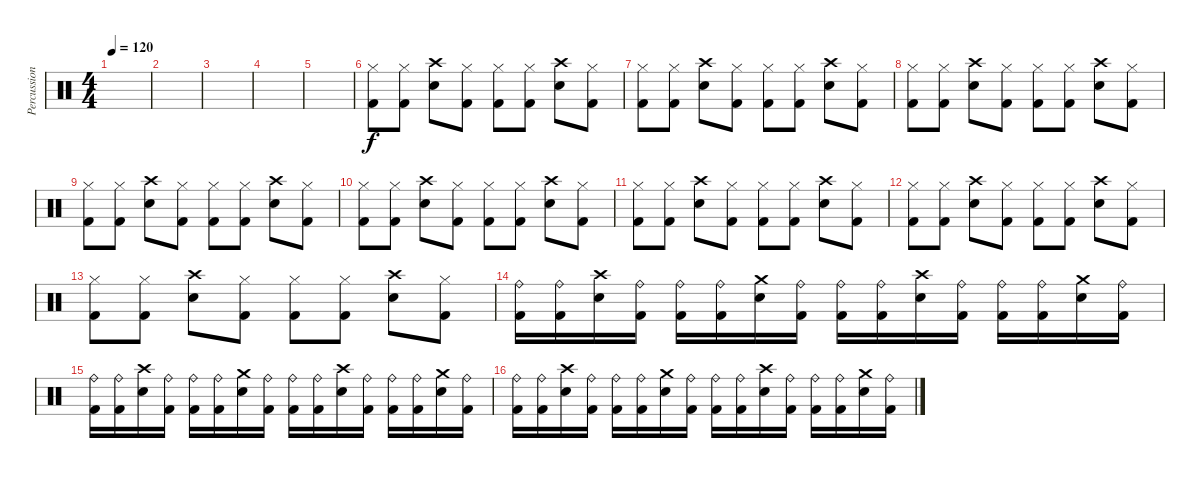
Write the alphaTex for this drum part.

\track ("Percussion" "Percussion") {instrument percussion}
\staff {score}
\articulation defaults
\ts (4 4)
\tempo 120
\clef neutral
\ks c
|
|
|
|
|
("Kick (hit) 2" "Hi-Hat (closed)").8 ("Kick (hit) 2" "Hi-Hat (closed)").8 ("Electric Snare (hit)" "Crash high (hit)").8 ("Kick (hit) 2" "Hi-Hat (closed)").8 ("Kick (hit) 2" "Hi-Hat (closed)").8 ("Kick (hit) 2" "Hi-Hat (closed)").8 ("Electric Snare (hit)" "Crash high (hit)").8 ("Kick (hit) 2" "Hi-Hat (closed)").8 |
("Kick (hit) 2" "Hi-Hat (closed)").8 ("Kick (hit) 2" "Hi-Hat (closed)").8 ("Electric Snare (hit)" "Crash high (hit)").8 ("Kick (hit) 2" "Hi-Hat (closed)").8 ("Kick (hit) 2" "Hi-Hat (closed)").8 ("Kick (hit) 2" "Hi-Hat (closed)").8 ("Electric Snare (hit)" "Crash high (hit)").8 ("Kick (hit) 2" "Hi-Hat (closed)").8 |
("Kick (hit) 2" "Hi-Hat (closed)").8 ("Kick (hit) 2" "Hi-Hat (closed)").8 ("Electric Snare (hit)" "Crash high (hit)").8 ("Kick (hit) 2" "Hi-Hat (closed)").8 ("Kick (hit) 2" "Hi-Hat (closed)").8 ("Kick (hit) 2" "Hi-Hat (closed)").8 ("Electric Snare (hit)" "Crash high (hit)").8 ("Kick (hit) 2" "Hi-Hat (closed)").8 |
("Kick (hit) 2" "Hi-Hat (closed)").8 ("Kick (hit) 2" "Hi-Hat (closed)").8 ("Electric Snare (hit)" "Crash high (hit)").8 ("Kick (hit) 2" "Hi-Hat (closed)").8 ("Kick (hit) 2" "Hi-Hat (closed)").8 ("Kick (hit) 2" "Hi-Hat (closed)").8 ("Electric Snare (hit)" "Crash high (hit)").8 ("Kick (hit) 2" "Hi-Hat (closed)").8 |
("Kick (hit) 2" "Hi-Hat (closed)").8 ("Kick (hit) 2" "Hi-Hat (closed)").8 ("Electric Snare (hit)" "Crash high (hit)").8 ("Kick (hit) 2" "Hi-Hat (closed)").8 ("Kick (hit) 2" "Hi-Hat (closed)").8 ("Kick (hit) 2" "Hi-Hat (closed)").8 ("Electric Snare (hit)" "Crash high (hit)").8 ("Kick (hit) 2" "Hi-Hat (closed)").8 |
("Kick (hit) 2" "Hi-Hat (closed)").8 ("Kick (hit) 2" "Hi-Hat (closed)").8 ("Electric Snare (hit)" "Crash high (hit)").8 ("Kick (hit) 2" "Hi-Hat (closed)").8 ("Kick (hit) 2" "Hi-Hat (closed)").8 ("Kick (hit) 2" "Hi-Hat (closed)").8 ("Electric Snare (hit)" "Crash high (hit)").8 ("Kick (hit) 2" "Hi-Hat (closed)").8 |
("Kick (hit) 2" "Hi-Hat (closed)").8 ("Kick (hit) 2" "Hi-Hat (closed)").8 ("Electric Snare (hit)" "Crash high (hit)").8 ("Kick (hit) 2" "Hi-Hat (closed)").8 ("Kick (hit) 2" "Hi-Hat (closed)").8 ("Kick (hit) 2" "Hi-Hat (closed)").8 ("Electric Snare (hit)" "Crash high (hit)").8 ("Kick (hit) 2" "Hi-Hat (closed)").8 |
("Kick (hit) 2" "Hi-Hat (closed)").8 ("Kick (hit) 2" "Hi-Hat (closed)").8 ("Electric Snare (hit)" "Crash high (hit)").8 ("Kick (hit) 2" "Hi-Hat (closed)").8 ("Kick (hit) 2" "Hi-Hat (closed)").8 ("Kick (hit) 2" "Hi-Hat (closed)").8 ("Electric Snare (hit)" "Crash high (hit)").8 ("Kick (hit) 2" "Hi-Hat (closed)").8 |
("Ride (bell)" "Kick (hit) 2").16 ("Ride (bell)" "Kick (hit) 2").16 ("Crash high (hit)" "Electric Snare (hit)").16 ("Ride (bell)" "Kick (hit) 2").16 ("Ride (bell)" "Kick (hit) 2").16 ("Ride (bell)" "Kick (hit) 2").16 ("Crash medium (hit)" "Electric Snare (hit)").16 ("Ride (bell)" "Kick (hit) 2").16 ("Ride (bell)" "Kick (hit) 2").16 ("Ride (bell)" "Kick (hit) 2").16 ("Crash high (hit)" "Electric Snare (hit)").16 ("Ride (bell)" "Kick (hit) 2").16 ("Ride (bell)" "Kick (hit) 2").16 ("Ride (bell)" "Kick (hit) 2").16 ("Crash medium (hit)" "Electric Snare (hit)").16 ("Ride (bell)" "Kick (hit) 2").16 |
("Ride (bell)" "Kick (hit) 2").16 ("Ride (bell)" "Kick (hit) 2").16 ("Crash high (hit)" "Electric Snare (hit)").16 ("Ride (bell)" "Kick (hit) 2").16 ("Ride (bell)" "Kick (hit) 2").16 ("Ride (bell)" "Kick (hit) 2").16 ("Crash medium (hit)" "Electric Snare (hit)").16 ("Ride (bell)" "Kick (hit) 2").16 ("Ride (bell)" "Kick (hit) 2").16 ("Ride (bell)" "Kick (hit) 2").16 ("Crash high (hit)" "Electric Snare (hit)").16 ("Ride (bell)" "Kick (hit) 2").16 ("Ride (bell)" "Kick (hit) 2").16 ("Ride (bell)" "Kick (hit) 2").16 ("Crash medium (hit)" "Electric Snare (hit)").16 ("Ride (bell)" "Kick (hit) 2").16 |
("Ride (bell)" "Kick (hit) 2").16 ("Ride (bell)" "Kick (hit) 2").16 ("Crash high (hit)" "Electric Snare (hit)").16 ("Ride (bell)" "Kick (hit) 2").16 ("Ride (bell)" "Kick (hit) 2").16 ("Ride (bell)" "Kick (hit) 2").16 ("Crash medium (hit)" "Electric Snare (hit)").16 ("Ride (bell)" "Kick (hit) 2").16 ("Ride (bell)" "Kick (hit) 2").16 ("Ride (bell)" "Kick (hit) 2").16 ("Crash high (hit)" "Electric Snare (hit)").16 ("Ride (bell)" "Kick (hit) 2").16 ("Ride (bell)" "Kick (hit) 2").16 ("Ride (bell)" "Kick (hit) 2").16 ("Crash medium (hit)" "Electric Snare (hit)").16 ("Ride (bell)" "Kick (hit) 2").16
